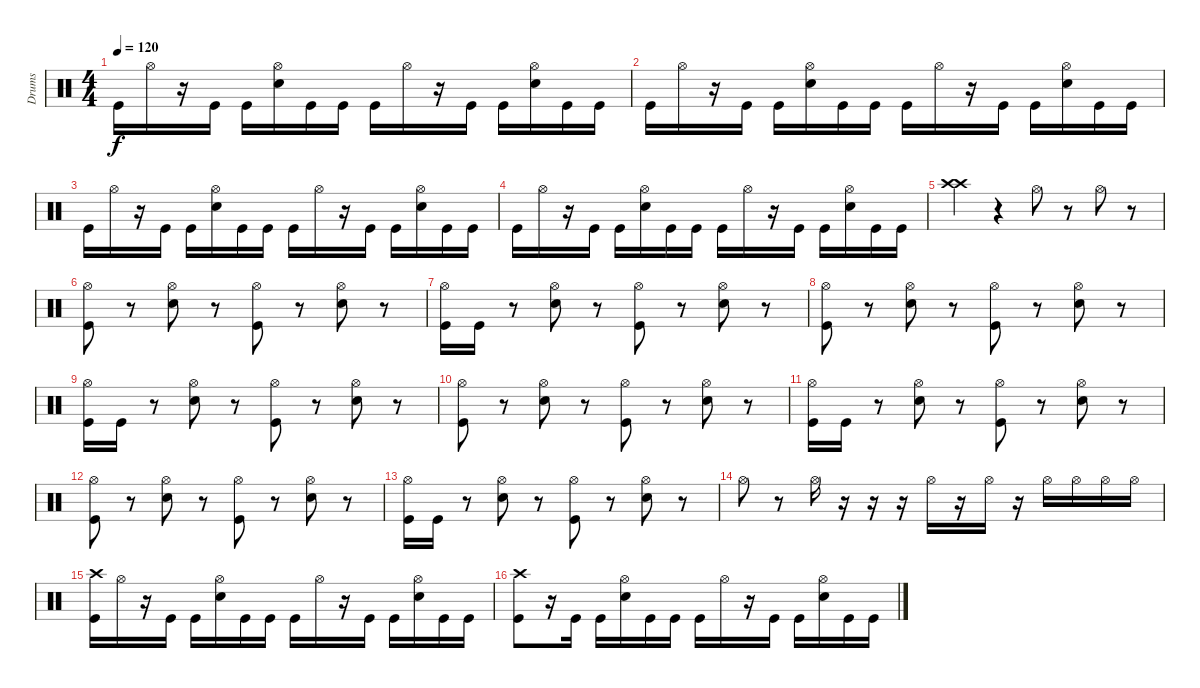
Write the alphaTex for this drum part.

\track ("Drums" "Drums") {instrument percussion}
\staff {score}
\articulation defaults
\ts (4 4)
\tempo 120
\clef neutral
\ks c "Kick (hit)".16{dy f} "Hi-Hat (open)".16
r.16 "Kick (hit)".16 "Kick (hit)".16 ("Hi-Hat (open)" "Snare (hit) 2").16 "Kick (hit)".16 "Kick (hit)".16 "Kick (hit)".16 "Hi-Hat (open)".16 r.16 "Kick (hit)".16 "Kick (hit)".16 ("Hi-Hat (open)" "Snare (hit) 2").16 "Kick (hit)".16 "Kick (hit)".16 |
"Kick (hit)".16 "Hi-Hat (open)".16 r.16 "Kick (hit)".16 "Kick (hit)".16 ("Hi-Hat (open)" "Snare (hit) 2").16 "Kick (hit)".16 "Kick (hit)".16 "Kick (hit)".16 "Hi-Hat (open)".16 r.16 "Kick (hit)".16 "Kick (hit)".16 ("Hi-Hat (open)" "Snare (hit) 2").16 "Kick (hit)".16 "Kick (hit)".16 |
"Kick (hit)".16 "Hi-Hat (open)".16 r.16 "Kick (hit)".16 "Kick (hit)".16 ("Hi-Hat (open)" "Snare (hit) 2").16 "Kick (hit)".16 "Kick (hit)".16 "Kick (hit)".16 "Hi-Hat (open)".16 r.16 "Kick (hit)".16 "Kick (hit)".16 ("Hi-Hat (open)" "Snare (hit) 2").16 "Kick (hit)".16 "Kick (hit)".16 |
"Kick (hit)".16 "Hi-Hat (open)".16 r.16 "Kick (hit)".16 "Kick (hit)".16 ("Hi-Hat (open)" "Snare (hit) 2").16 "Kick (hit)".16 "Kick (hit)".16 "Kick (hit)".16 "Hi-Hat (open)".16 r.16 "Kick (hit)".16 "Kick (hit)".16 ("Hi-Hat (open)" "Snare (hit) 2").16 "Kick (hit)".16 "Kick (hit)".16 |
("Crash high (hit)" "Crash high (hit)").4 r.4 "Hi-Hat (open)".8 r.8 "Hi-Hat (open)".8 r.8 |
("Hi-Hat (open)" "Kick (hit)").8 r.8 ("Hi-Hat (open)" "Snare (hit) 2").8 r.8 ("Hi-Hat (open)" "Kick (hit)").8 r.8 ("Hi-Hat (open)" "Snare (hit) 2").8 r.8 |
("Hi-Hat (open)" "Kick (hit)").16 "Kick (hit)".16 r.8 ("Hi-Hat (open)" "Snare (hit) 2").8 r.8 ("Hi-Hat (open)" "Kick (hit)").8 r.8 ("Hi-Hat (open)" "Snare (hit) 2").8 r.8 |
("Hi-Hat (open)" "Kick (hit)").8 r.8 ("Hi-Hat (open)" "Snare (hit) 2").8 r.8 ("Hi-Hat (open)" "Kick (hit)").8 r.8 ("Hi-Hat (open)" "Snare (hit) 2").8 r.8 |
("Hi-Hat (open)" "Kick (hit)").16 "Kick (hit)".16 r.8 ("Hi-Hat (open)" "Snare (hit) 2").8 r.8 ("Hi-Hat (open)" "Kick (hit)").8 r.8 ("Hi-Hat (open)" "Snare (hit) 2").8 r.8 |
("Hi-Hat (open)" "Kick (hit)").8 r.8 ("Hi-Hat (open)" "Snare (hit) 2").8 r.8 ("Hi-Hat (open)" "Kick (hit)").8 r.8 ("Hi-Hat (open)" "Snare (hit) 2").8 r.8 |
("Hi-Hat (open)" "Kick (hit)").16 "Kick (hit)".16 r.8 ("Hi-Hat (open)" "Snare (hit) 2").8 r.8 ("Hi-Hat (open)" "Kick (hit)").8 r.8 ("Hi-Hat (open)" "Snare (hit) 2").8 r.8 |
("Hi-Hat (open)" "Kick (hit)").8 r.8 ("Hi-Hat (open)" "Snare (hit) 2").8 r.8 ("Hi-Hat (open)" "Kick (hit)").8 r.8 ("Hi-Hat (open)" "Snare (hit) 2").8 r.8 |
("Hi-Hat (open)" "Kick (hit)").16 "Kick (hit)".16 r.8 ("Hi-Hat (open)" "Snare (hit) 2").8 r.8 ("Hi-Hat (open)" "Kick (hit)").8 r.8 ("Hi-Hat (open)" "Snare (hit) 2").8 r.8 |
"Hi-Hat (open)".8 r.8 "Hi-Hat (open)".16 r.16 r.16 r.16 "Hi-Hat (open)".16 r.16 "Hi-Hat (open)".16 r.16 "Hi-Hat (open)".16 "Hi-Hat (open)".16 "Hi-Hat (open)".16 "Hi-Hat (open)".16 |
("Crash high (hit)" "Kick (hit)").16 "Hi-Hat (open)".16 r.16 "Kick (hit)".16 "Kick (hit)".16 ("Hi-Hat (open)" "Snare (hit) 2").16 "Kick (hit)".16 "Kick (hit)".16 "Kick (hit)".16 "Hi-Hat (open)".16 r.16 "Kick (hit)".16 "Kick (hit)".16 ("Hi-Hat (open)" "Snare (hit) 2").16 "Kick (hit)".16 "Kick (hit)".16 |
("Crash high (hit)" "Kick (hit)").8 r.16 "Kick (hit)".16 "Kick (hit)".16 ("Hi-Hat (open)" "Snare (hit) 2").16 "Kick (hit)".16 "Kick (hit)".16 "Kick (hit)".16 "Hi-Hat (open)".16 r.16 "Kick (hit)".16 "Kick (hit)".16 ("Hi-Hat (open)" "Snare (hit) 2").16 "Kick (hit)".16 "Kick (hit)".16
